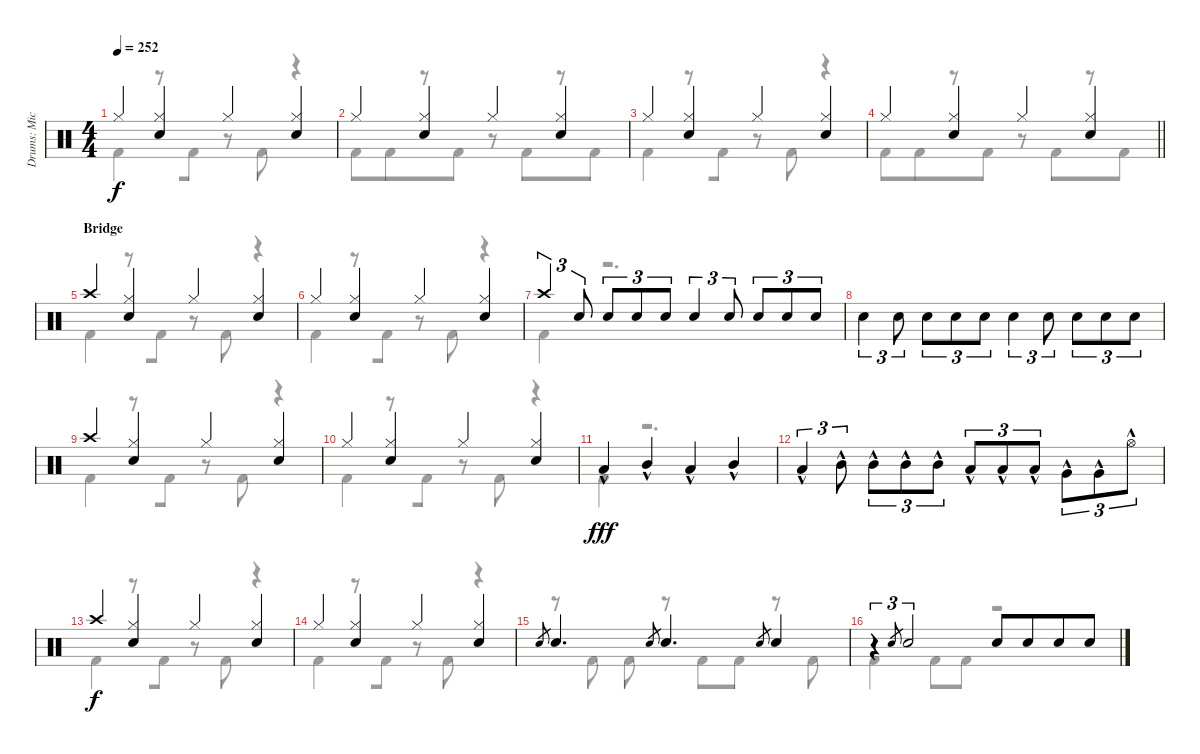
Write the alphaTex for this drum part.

\track ("Drums: Mick" "Drums: Mic") {instrument percussion}
\staff {score}
\articulation defaults
\voice
\ts (4 4)
\tempo 252
\clef neutral
\ks c "Hi-Hat (closed)".4{dy f}
("Hi-Hat (closed)" "Snare (hit) 2").4 "Hi-Hat (closed)".4 ("Hi-Hat (closed)" "Snare (hit) 2").4 |
"Hi-Hat (closed)".4 ("Hi-Hat (closed)" "Snare (hit) 2").4 "Hi-Hat (closed)".4 ("Hi-Hat (closed)" "Snare (hit) 2").4 |
"Hi-Hat (closed)".4 ("Hi-Hat (closed)" "Snare (hit) 2").4 "Hi-Hat (closed)".4 ("Hi-Hat (closed)" "Snare (hit) 2").4 |
\barLineRight lightlight "Hi-Hat (closed)".4
("Hi-Hat (closed)" "Snare (hit) 2").4 "Hi-Hat (closed)".4 ("Hi-Hat (closed)" "Snare (hit) 2").4 |
\section ("" "Bridge")
"Crash high (hit)".4 ("Hi-Hat (closed)" "Snare (hit) 2").4 "Hi-Hat (closed)".4 ("Hi-Hat (closed)" "Snare (hit) 2").4 |
"Hi-Hat (closed)".4 ("Hi-Hat (closed)" "Snare (hit) 2").4 "Hi-Hat (closed)".4 ("Hi-Hat (closed)" "Snare (hit) 2").4 |
"Crash high (hit)".4{tu (3 2)} "Snare (hit) 2".8{tu (3 2)} "Snare (hit) 2".8{tu (3 2)} "Snare (hit) 2".8{tu (3 2)} "Snare (hit) 2".8{tu (3 2)} "Snare (hit) 2".4{tu (3 2)} "Snare (hit) 2".8{tu (3 2)} "Snare (hit) 2".8{tu (3 2)} "Snare (hit) 2".8{tu (3 2)} "Snare (hit) 2".8{tu (3 2)} |
"Snare (hit) 2".4{tu (3 2)} "Snare (hit) 2".8{tu (3 2)} "Snare (hit) 2".8{tu (3 2)} "Snare (hit) 2".8{tu (3 2)} "Snare (hit) 2".8{tu (3 2)} "Snare (hit) 2".4{tu (3 2)} "Snare (hit) 2".8{tu (3 2)} "Snare (hit) 2".8{tu (3 2)} "Snare (hit) 2".8{tu (3 2)} "Snare (hit) 2".8{tu (3 2)} |
"Crash high (hit)".4 ("Hi-Hat (closed)" "Snare (hit) 2").4 "Hi-Hat (closed)".4 ("Hi-Hat (closed)" "Snare (hit) 2").4 |
"Hi-Hat (closed)".4 ("Hi-Hat (closed)" "Snare (hit) 2").4 "Hi-Hat (closed)".4 ("Hi-Hat (closed)" "Snare (hit) 2").4 |
"Low Tom (hit)"{hac}.4{dy fff} "Mid Tom (hit)"{hac}.4 "Low Tom (hit)"{hac}.4 "Mid Tom (hit)"{hac}.4 |
"Low Tom (hit)"{hac}.4{tu (3 2)} "Mid Tom (hit)"{hac}.8{tu (3 2)} "Mid Tom (hit)"{hac}.8{tu (3 2)} "Mid Tom (hit)"{hac}.8{tu (3 2)} "Mid Tom (hit)"{hac}.8{tu (3 2)} "Low Tom (hit)"{hac}.8{tu (3 2)} "Low Tom (hit)"{hac}.8{tu (3 2)} "Low Tom (hit)"{hac}.8{tu (3 2)} "Very Low Tom (hit)"{hac}.8{tu (3 2)} "Very Low Tom (hit)"{hac}.8{tu (3 2)} "Hi-Hat (open)"{hac}.8{tu (3 2)} |
"Crash high (hit)".4{dy f} ("Hi-Hat (closed)" "Snare (hit) 2").4 "Hi-Hat (closed)".4 ("Hi-Hat (closed)" "Snare (hit) 2").4 |
"Hi-Hat (closed)".4 ("Hi-Hat (closed)" "Snare (hit) 2").4 "Hi-Hat (closed)".4 ("Hi-Hat (closed)" "Snare (hit) 2").4 |
"Electric Snare (hit)".8{gr} "Snare (hit) 2".4{d} "Electric Snare (hit)".8{gr} "Snare (hit) 2".4{d} "Electric Snare (hit)".8{gr} "Snare (hit) 2".4 |
r.4{tu (3 2)} "Electric Snare (hit)".8{gr} "Snare (hit) 2".2{tu (3 2)} "Snare (hit) 2".8 "Snare (hit) 2".8{beam merge} "Snare (hit) 2".8 "Snare (hit) 2".8
\voice
\clef neutral
\ottava regular
\simile none
\ks c "Kick (hit) 2".4{dy f beam merge}
r.8 "Kick (hit) 2".8 r.8 "Kick (hit) 2".8{beam merge} r.4 |
"Kick (hit) 2".8 "Kick (hit) 2".8{beam merge} r.8 "Kick (hit) 2".8 r.8 "Kick (hit) 2".8{beam merge} r.8 "Kick (hit) 2".8 |
"Kick (hit) 2".4{beam merge} r.8 "Kick (hit) 2".8 r.8 "Kick (hit) 2".8{beam merge} r.4 |
\barLineRight lightlight "Kick (hit) 2".8 "Kick (hit) 2".8{beam merge}
r.8 "Kick (hit) 2".8 r.8 "Kick (hit) 2".8{beam merge} r.8 "Kick (hit) 2".8 |
"Kick (hit) 2".4{beam merge} r.8 "Kick (hit) 2".8 r.8 "Kick (hit) 2".8{beam merge} r.4 |
"Kick (hit) 2".4{beam merge} r.8 "Kick (hit) 2".8 r.8 "Kick (hit) 2".8{beam merge} r.4 |
"Kick (hit) 2".4 r.2{d} |
|
"Kick (hit) 2".4{beam merge} r.8 "Kick (hit) 2".8 r.8 "Kick (hit) 2".8{beam merge} r.4 |
"Kick (hit) 2".4{beam merge} r.8 "Kick (hit) 2".8 r.8 "Kick (hit) 2".8{beam merge} r.4 |
"Kick (hit) 2".4 r.2{d} |
|
"Kick (hit) 2".4{beam merge} r.8 "Kick (hit) 2".8 r.8 "Kick (hit) 2".8{beam merge} r.4 |
"Kick (hit) 2".4{beam merge} r.8 "Kick (hit) 2".8 r.8 "Kick (hit) 2".8{beam merge} r.4 |
r.8 "Kick (hit) 2".8 "Kick (hit) 2".8 r.8 "Kick (hit) 2".8 "Kick (hit) 2".8 r.8 "Kick (hit) 2".8 |
"Kick (hit) 2".4 "Kick (hit) 2".8 "Kick (hit) 2".8 r.2
